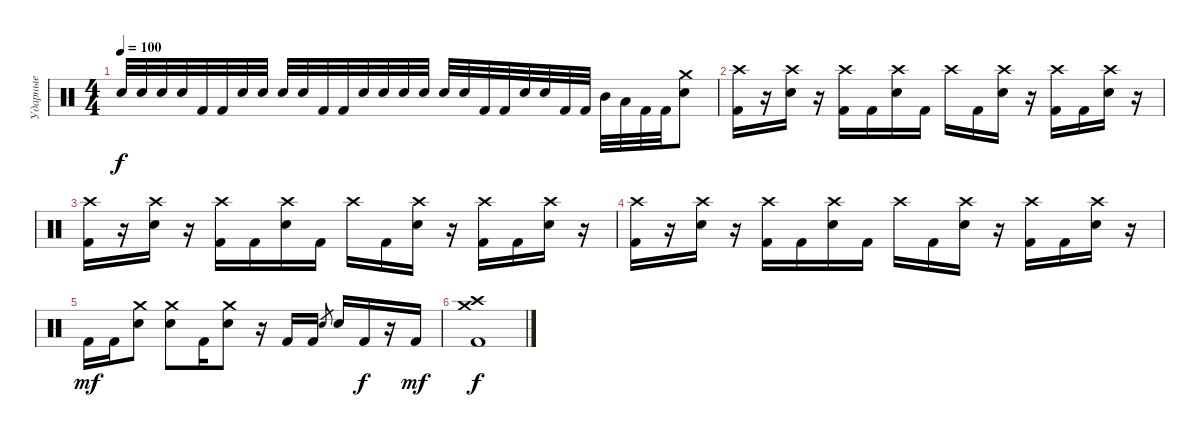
\track ("Ударные" "Ударные") {instrument percussion}
\staff {score}
\articulation defaults
\ts (4 4)
\tempo 100
\clef neutral
\ks c "Electric Snare (hit)".32{dy f} "Electric Snare (hit)".32 "Electric Snare (hit)".32 "Electric Snare (hit)".32 "Kick (hit) 2".32 "Kick (hit) 2".32 "Electric Snare (hit)".32 "Electric Snare (hit)".32 "Electric Snare (hit)".32 "Electric Snare (hit)".32 "Kick (hit) 2".32 "Kick (hit) 2".32 "Electric Snare (hit)".32 "Electric Snare (hit)".32 "Electric Snare (hit)".32 "Electric Snare (hit)".32 "Electric Snare (hit)".32 "Electric Snare (hit)".32 "Kick (hit) 2".32 "Kick (hit) 2".32 "Electric Snare (hit)".32 "Electric Snare (hit)".32 "Kick (hit) 2".32 "Kick (hit) 2".32 "Mid Tom (hit)".32 "Low Tom (hit)".32 "Kick (hit) 2".32 "Kick (hit) 2".32
("Crash medium (hit)" "Electric Snare (hit)").8 |
("Crash high (hit)" "Kick (hit) 2").16 r.16 ("Crash high (hit)" "Electric Snare (hit)").16 r.16 ("Crash high (hit)" "Kick (hit) 2").16 "Kick (hit) 2".16 ("Crash high (hit)" "Electric Snare (hit)").16 "Kick (hit) 2".16 "Crash high (hit)".16 "Kick (hit) 2".16 ("Crash high (hit)" "Electric Snare (hit)").16 r.16 ("Crash high (hit)" "Kick (hit) 2").16 "Kick (hit) 2".16 ("Crash high (hit)" "Electric Snare (hit)").16 r.16 |
("Crash high (hit)" "Kick (hit) 2").16 r.16 ("Crash high (hit)" "Electric Snare (hit)").16 r.16 ("Crash high (hit)" "Kick (hit) 2").16 "Kick (hit) 2".16 ("Crash high (hit)" "Electric Snare (hit)").16 "Kick (hit) 2".16 "Crash high (hit)".16 "Kick (hit) 2".16 ("Crash high (hit)" "Electric Snare (hit)").16 r.16 ("Crash high (hit)" "Kick (hit) 2").16 "Kick (hit) 2".16 ("Crash high (hit)" "Electric Snare (hit)").16 r.16 |
("Crash high (hit)" "Kick (hit) 2").16 r.16 ("Crash high (hit)" "Electric Snare (hit)").16 r.16 ("Crash high (hit)" "Kick (hit) 2").16 "Kick (hit) 2".16 ("Crash high (hit)" "Electric Snare (hit)").16 "Kick (hit) 2".16 "Crash high (hit)".16 "Kick (hit) 2".16 ("Crash high (hit)" "Electric Snare (hit)").16 r.16 ("Crash high (hit)" "Kick (hit) 2").16 "Kick (hit) 2".16 ("Crash high (hit)" "Electric Snare (hit)").16 r.16 |
"Kick (hit) 2".16{dy mf} "Kick (hit) 2".16 ("Crash medium (hit)" "Electric Snare (hit)").8 ("Crash medium (hit)" "Electric Snare (hit)").8 "Kick (hit) 2".16 ("Crash medium (hit)" "Electric Snare (hit)").8 r.16 "Kick (hit) 2".16 "Kick (hit) 2".16 "Electric Snare (hit)".8{gr} "Electric Snare (hit)".16 "Kick (hit) 2".16{dy f} r.16 "Kick (hit) 2".16{dy mf} |
("Crash high (hit)" "Crash medium (hit)" "Kick (hit) 2").1{dy f}
